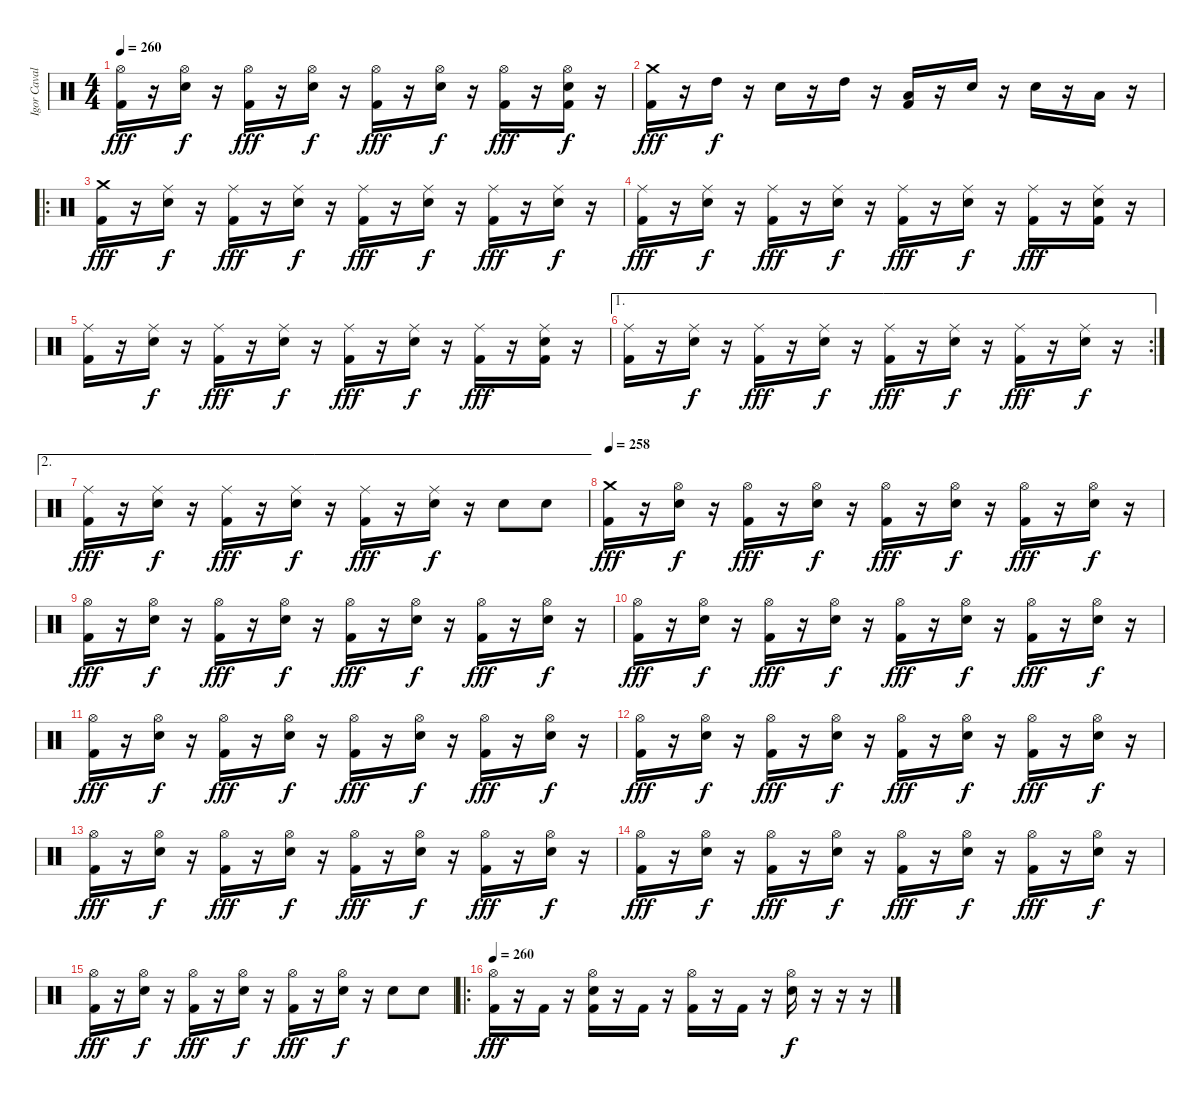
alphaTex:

\track ("Igor Cavalera" "Igor Caval") {instrument percussion}
\staff {score}
\articulation defaults
\ts (4 4)
\tempo 260
\clef neutral
\ks c
("Hi-Hat (open)" "Kick (hit) 2").16{dy fff} r.16 ("Electric Snare (hit)" "Hi-Hat (open)").16{dy f} r.16 ("Hi-Hat (open)" "Kick (hit) 2").16{dy fff} r.16 ("Electric Snare (hit)" "Hi-Hat (open)").16{dy f} r.16 ("Hi-Hat (open)" "Kick (hit) 2").16{dy fff} r.16 ("Electric Snare (hit)" "Hi-Hat (open)").16{dy f} r.16 ("Hi-Hat (open)" "Kick (hit) 2").16{dy fff} r.16 ("Electric Snare (hit)" "Hi-Hat (open)" "Kick (hit) 2").16{dy f} r.16 |
("Crash medium (hit)" "Kick (hit) 2").16{dy fff} r.16 "High Tom (hit)".16{dy f} r.16 "Electric Snare (hit)".16 r.16 "High Tom (hit)".16 r.16 ("Low Tom (hit)" "Kick (hit) 2").16 r.16 "Electric Snare (hit)".16 r.16 "Electric Snare (hit)".16 r.16 "Low Tom (hit)".16 r.16 |
\ro
("Crash medium (hit)" "Kick (hit) 2").16{dy fff} r.16 ("Electric Snare (hit)" "Ride (middle)").16{dy f} r.16 ("Ride (middle)" "Kick (hit) 2").16{dy fff} r.16 ("Electric Snare (hit)" "Ride (middle)").16{dy f} r.16 ("Ride (middle)" "Kick (hit) 2").16{dy fff} r.16 ("Electric Snare (hit)" "Ride (middle)").16{dy f} r.16 ("Ride (middle)" "Kick (hit) 2").16{dy fff} r.16 ("Electric Snare (hit)" "Ride (middle)").16{dy f} r.16 |
("Ride (middle)" "Kick (hit) 2").16{dy fff} r.16 ("Electric Snare (hit)" "Ride (middle)").16{dy f} r.16 ("Ride (middle)" "Kick (hit) 2").16{dy fff} r.16 ("Electric Snare (hit)" "Ride (middle)").16{dy f} r.16 ("Ride (middle)" "Kick (hit) 2").16{dy fff} r.16 ("Electric Snare (hit)" "Ride (middle)").16{dy f} r.16 ("Ride (middle)" "Kick (hit) 2").16{dy fff} r.16 ("Electric Snare (hit)" "Ride (middle)" "Kick (hit) 2").16 r.16 |
("Ride (middle)" "Kick (hit) 2").16 r.16 ("Electric Snare (hit)" "Ride (middle)").16{dy f} r.16 ("Ride (middle)" "Kick (hit) 2").16{dy fff} r.16 ("Electric Snare (hit)" "Ride (middle)").16{dy f} r.16 ("Ride (middle)" "Kick (hit) 2").16{dy fff} r.16 ("Electric Snare (hit)" "Ride (middle)").16{dy f} r.16 ("Ride (middle)" "Kick (hit) 2").16{dy fff} r.16 ("Electric Snare (hit)" "Ride (middle)" "Kick (hit) 2").16 r.16 |
\ae 1
\rc 2
("Ride (middle)" "Kick (hit) 2").16 r.16 ("Electric Snare (hit)" "Ride (middle)").16{dy f} r.16 ("Ride (middle)" "Kick (hit) 2").16{dy fff} r.16 ("Electric Snare (hit)" "Ride (middle)").16{dy f} r.16 ("Ride (middle)" "Kick (hit) 2").16{dy fff} r.16 ("Electric Snare (hit)" "Ride (middle)").16{dy f} r.16 ("Ride (middle)" "Kick (hit) 2").16{dy fff} r.16 ("Electric Snare (hit)" "Ride (middle)").16{dy f} r.16 |
\ae 2
("Ride (middle)" "Kick (hit) 2").16{dy fff} r.16 ("Electric Snare (hit)" "Ride (middle)").16{dy f} r.16 ("Ride (middle)" "Kick (hit) 2").16{dy fff} r.16 ("Electric Snare (hit)" "Ride (middle)").16{dy f} r.16 ("Ride (middle)" "Kick (hit) 2").16{dy fff} r.16 ("Electric Snare (hit)" "Ride (middle)").16{dy f} r.16 "Electric Snare (hit)".8 "Electric Snare (hit)".8 |
\tempo 258
("Crash medium (hit)" "Kick (hit) 2").16{dy fff} r.16 ("Electric Snare (hit)" "Hi-Hat (open)").16{dy f} r.16 ("Hi-Hat (open)" "Kick (hit) 2").16{dy fff} r.16 ("Electric Snare (hit)" "Hi-Hat (open)").16{dy f} r.16 ("Hi-Hat (open)" "Kick (hit) 2").16{dy fff} r.16 ("Electric Snare (hit)" "Hi-Hat (open)").16{dy f} r.16 ("Hi-Hat (open)" "Kick (hit) 2").16{dy fff} r.16 ("Electric Snare (hit)" "Hi-Hat (open)").16{dy f} r.16 |
("Hi-Hat (open)" "Kick (hit) 2").16{dy fff} r.16 ("Electric Snare (hit)" "Hi-Hat (open)").16{dy f} r.16 ("Hi-Hat (open)" "Kick (hit) 2").16{dy fff} r.16 ("Electric Snare (hit)" "Hi-Hat (open)").16{dy f} r.16 ("Hi-Hat (open)" "Kick (hit) 2").16{dy fff} r.16 ("Electric Snare (hit)" "Hi-Hat (open)").16{dy f} r.16 ("Hi-Hat (open)" "Kick (hit) 2").16{dy fff} r.16 ("Electric Snare (hit)" "Hi-Hat (open)").16{dy f} r.16 |
("Hi-Hat (open)" "Kick (hit) 2").16{dy fff} r.16 ("Electric Snare (hit)" "Hi-Hat (open)").16{dy f} r.16 ("Hi-Hat (open)" "Kick (hit) 2").16{dy fff} r.16 ("Electric Snare (hit)" "Hi-Hat (open)").16{dy f} r.16 ("Hi-Hat (open)" "Kick (hit) 2").16{dy fff} r.16 ("Electric Snare (hit)" "Hi-Hat (open)").16{dy f} r.16 ("Hi-Hat (open)" "Kick (hit) 2").16{dy fff} r.16 ("Electric Snare (hit)" "Hi-Hat (open)").16{dy f} r.16 |
("Hi-Hat (open)" "Kick (hit) 2").16{dy fff} r.16 ("Electric Snare (hit)" "Hi-Hat (open)").16{dy f} r.16 ("Hi-Hat (open)" "Kick (hit) 2").16{dy fff} r.16 ("Electric Snare (hit)" "Hi-Hat (open)").16{dy f} r.16 ("Hi-Hat (open)" "Kick (hit) 2").16{dy fff} r.16 ("Electric Snare (hit)" "Hi-Hat (open)").16{dy f} r.16 ("Hi-Hat (open)" "Kick (hit) 2").16{dy fff} r.16 ("Electric Snare (hit)" "Hi-Hat (open)").16{dy f} r.16 |
("Hi-Hat (open)" "Kick (hit) 2").16{dy fff} r.16 ("Electric Snare (hit)" "Hi-Hat (open)").16{dy f} r.16 ("Hi-Hat (open)" "Kick (hit) 2").16{dy fff} r.16 ("Electric Snare (hit)" "Hi-Hat (open)").16{dy f} r.16 ("Hi-Hat (open)" "Kick (hit) 2").16{dy fff} r.16 ("Electric Snare (hit)" "Hi-Hat (open)").16{dy f} r.16 ("Hi-Hat (open)" "Kick (hit) 2").16{dy fff} r.16 ("Electric Snare (hit)" "Hi-Hat (open)").16{dy f} r.16 |
("Hi-Hat (open)" "Kick (hit) 2").16{dy fff} r.16 ("Electric Snare (hit)" "Hi-Hat (open)").16{dy f} r.16 ("Hi-Hat (open)" "Kick (hit) 2").16{dy fff} r.16 ("Electric Snare (hit)" "Hi-Hat (open)").16{dy f} r.16 ("Hi-Hat (open)" "Kick (hit) 2").16{dy fff} r.16 ("Electric Snare (hit)" "Hi-Hat (open)").16{dy f} r.16 ("Hi-Hat (open)" "Kick (hit) 2").16{dy fff} r.16 ("Electric Snare (hit)" "Hi-Hat (open)").16{dy f} r.16 |
("Hi-Hat (open)" "Kick (hit) 2").16{dy fff} r.16 ("Electric Snare (hit)" "Hi-Hat (open)").16{dy f} r.16 ("Hi-Hat (open)" "Kick (hit) 2").16{dy fff} r.16 ("Electric Snare (hit)" "Hi-Hat (open)").16{dy f} r.16 ("Hi-Hat (open)" "Kick (hit) 2").16{dy fff} r.16 ("Electric Snare (hit)" "Hi-Hat (open)").16{dy f} r.16 ("Hi-Hat (open)" "Kick (hit) 2").16{dy fff} r.16 ("Electric Snare (hit)" "Hi-Hat (open)").16{dy f} r.16 |
("Hi-Hat (open)" "Kick (hit) 2").16{dy fff} r.16 ("Electric Snare (hit)" "Hi-Hat (open)").16{dy f} r.16 ("Hi-Hat (open)" "Kick (hit) 2").16{dy fff} r.16 ("Electric Snare (hit)" "Hi-Hat (open)").16{dy f} r.16 ("Hi-Hat (open)" "Kick (hit) 2").16{dy fff} r.16 ("Electric Snare (hit)" "Hi-Hat (open)").16{dy f} r.16 "Electric Snare (hit)".8 "Electric Snare (hit)".8 |
\ro
\tempo 260
("Hi-Hat (open)" "Kick (hit) 2").16{dy fff} r.16 "Kick (hit) 2".16 r.16 ("Electric Snare (hit)" "Hi-Hat (open)" "Kick (hit) 2").16 r.16 "Kick (hit) 2".16 r.16 ("Hi-Hat (open)" "Kick (hit) 2").16 r.16 "Kick (hit) 2".16 r.16 ("Electric Snare (hit)" "Hi-Hat (open)").16{dy f} r.16 r.16 r.16
